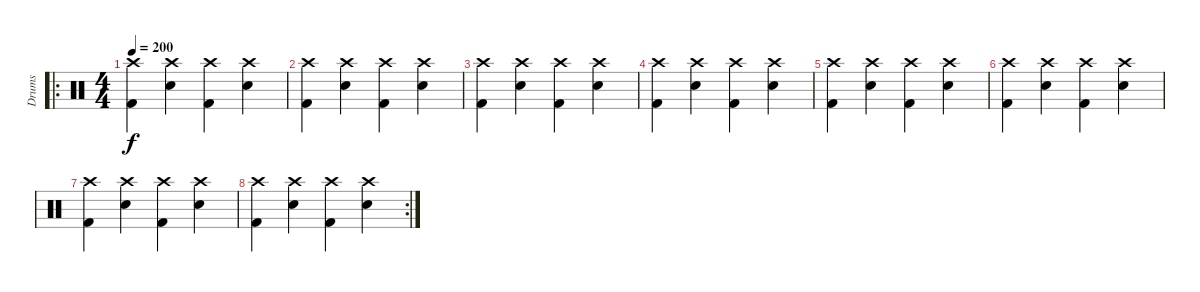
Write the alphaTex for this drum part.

\track ("Drums" "Drums") {instrument percussion}
\staff {score}
\articulation defaults
\ro
\ts (4 4)
\tempo 200
\clef neutral
\ks c
("Crash high (hit)" "Kick (hit) 2").4{dy f} ("Crash high (hit)" "Snare (hit) 2").4 ("Crash high (hit)" "Kick (hit) 2").4 ("Crash high (hit)" "Snare (hit) 2").4 |
("Crash high (hit)" "Kick (hit) 2").4 ("Crash high (hit)" "Snare (hit) 2").4 ("Crash high (hit)" "Kick (hit) 2").4 ("Crash high (hit)" "Snare (hit) 2").4 |
("Crash high (hit)" "Kick (hit) 2").4 ("Crash high (hit)" "Snare (hit) 2").4 ("Crash high (hit)" "Kick (hit) 2").4 ("Crash high (hit)" "Snare (hit) 2").4 |
("Crash high (hit)" "Kick (hit) 2").4 ("Crash high (hit)" "Snare (hit) 2").4 ("Crash high (hit)" "Kick (hit) 2").4 ("Crash high (hit)" "Snare (hit) 2").4 |
("Crash high (hit)" "Kick (hit) 2").4 ("Crash high (hit)" "Snare (hit) 2").4 ("Crash high (hit)" "Kick (hit) 2").4 ("Crash high (hit)" "Snare (hit) 2").4 |
("Crash high (hit)" "Kick (hit) 2").4 ("Crash high (hit)" "Snare (hit) 2").4 ("Crash high (hit)" "Kick (hit) 2").4 ("Crash high (hit)" "Snare (hit) 2").4 |
("Crash high (hit)" "Kick (hit) 2").4 ("Crash high (hit)" "Snare (hit) 2").4 ("Crash high (hit)" "Kick (hit) 2").4 ("Crash high (hit)" "Snare (hit) 2").4 |
\rc 2
("Crash high (hit)" "Kick (hit) 2").4 ("Crash high (hit)" "Snare (hit) 2").4 ("Crash high (hit)" "Kick (hit) 2").4 ("Crash high (hit)" "Snare (hit) 2").4
